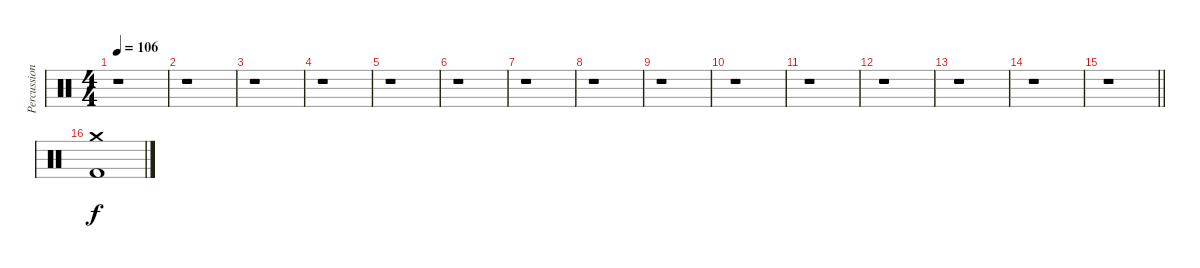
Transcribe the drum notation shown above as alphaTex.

\track ("Percussions" "Percussion") {instrument percussion}
\staff {score}
\articulation defaults
\ts (4 4)
\tempo 106
\clef neutral
\ks c
r.1{dy mp} |
r.1 |
r.1 |
r.1 |
r.1 |
r.1 |
r.1 |
r.1 |
r.1 |
r.1 |
r.1 |
r.1 |
r.1 |
r.1 |
\barLineRight lightlight
r.1 |
\section ("" "")
("Crash medium (hit)" "Kick (hit) 2").1{dy f}
